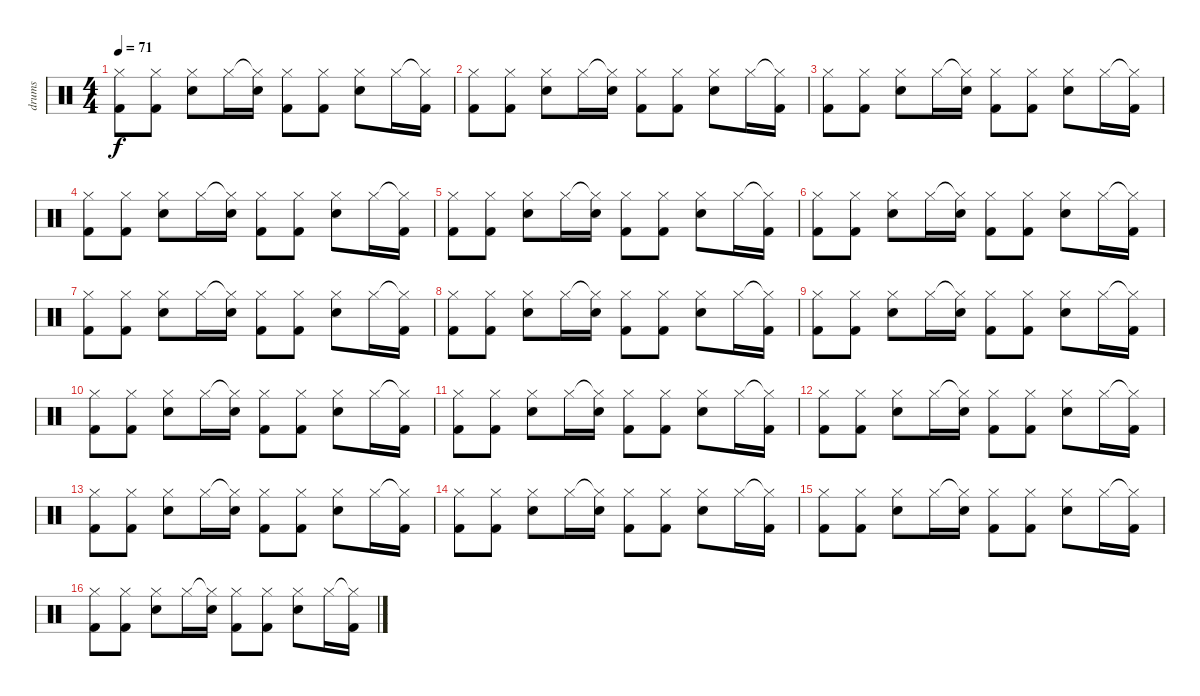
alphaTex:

\track ("drums" "drums") {instrument percussion}
\staff {score}
\articulation defaults
\ts (4 4)
\tempo 71
\clef neutral
\ks c
("Hi-Hat (closed)" "Kick (hit) 2").8{dy f} ("Hi-Hat (closed)" "Kick (hit) 2").8 ("Hi-Hat (closed)" "Snare (hit) 2").8 "Hi-Hat (closed)".16 ("Hi-Hat (closed)"{t} "Snare (hit) 2").16 ("Hi-Hat (closed)" "Kick (hit) 2").8 ("Hi-Hat (closed)" "Kick (hit) 2").8 ("Hi-Hat (closed)" "Snare (hit) 2").8 "Hi-Hat (closed)".16 ("Hi-Hat (closed)"{t} "Kick (hit) 2").16 |
("Hi-Hat (closed)" "Kick (hit) 2").8 ("Hi-Hat (closed)" "Kick (hit) 2").8 ("Hi-Hat (closed)" "Snare (hit) 2").8 "Hi-Hat (closed)".16 ("Hi-Hat (closed)"{t} "Snare (hit) 2").16 ("Hi-Hat (closed)" "Kick (hit) 2").8 ("Hi-Hat (closed)" "Kick (hit) 2").8 ("Hi-Hat (closed)" "Snare (hit) 2").8 "Hi-Hat (closed)".16 ("Hi-Hat (closed)"{t} "Kick (hit) 2").16 |
("Hi-Hat (closed)" "Kick (hit) 2").8 ("Hi-Hat (closed)" "Kick (hit) 2").8 ("Hi-Hat (closed)" "Snare (hit) 2").8 "Hi-Hat (closed)".16 ("Hi-Hat (closed)"{t} "Snare (hit) 2").16 ("Hi-Hat (closed)" "Kick (hit) 2").8 ("Hi-Hat (closed)" "Kick (hit) 2").8 ("Hi-Hat (closed)" "Snare (hit) 2").8 "Hi-Hat (closed)".16 ("Hi-Hat (closed)"{t} "Kick (hit) 2").16 |
("Hi-Hat (closed)" "Kick (hit) 2").8 ("Hi-Hat (closed)" "Kick (hit) 2").8 ("Hi-Hat (closed)" "Snare (hit) 2").8 "Hi-Hat (closed)".16 ("Hi-Hat (closed)"{t} "Snare (hit) 2").16 ("Hi-Hat (closed)" "Kick (hit) 2").8 ("Hi-Hat (closed)" "Kick (hit) 2").8 ("Hi-Hat (closed)" "Snare (hit) 2").8 "Hi-Hat (closed)".16 ("Hi-Hat (closed)"{t} "Kick (hit) 2").16 |
("Hi-Hat (closed)" "Kick (hit) 2").8 ("Hi-Hat (closed)" "Kick (hit) 2").8 ("Hi-Hat (closed)" "Snare (hit) 2").8 "Hi-Hat (closed)".16 ("Hi-Hat (closed)"{t} "Snare (hit) 2").16 ("Hi-Hat (closed)" "Kick (hit) 2").8 ("Hi-Hat (closed)" "Kick (hit) 2").8 ("Hi-Hat (closed)" "Snare (hit) 2").8 "Hi-Hat (closed)".16 ("Hi-Hat (closed)"{t} "Kick (hit) 2").16 |
("Hi-Hat (closed)" "Kick (hit) 2").8 ("Hi-Hat (closed)" "Kick (hit) 2").8 ("Hi-Hat (closed)" "Snare (hit) 2").8 "Hi-Hat (closed)".16 ("Hi-Hat (closed)"{t} "Snare (hit) 2").16 ("Hi-Hat (closed)" "Kick (hit) 2").8 ("Hi-Hat (closed)" "Kick (hit) 2").8 ("Hi-Hat (closed)" "Snare (hit) 2").8 "Hi-Hat (closed)".16 ("Hi-Hat (closed)"{t} "Kick (hit) 2").16 |
("Hi-Hat (closed)" "Kick (hit) 2").8 ("Hi-Hat (closed)" "Kick (hit) 2").8 ("Hi-Hat (closed)" "Snare (hit) 2").8 "Hi-Hat (closed)".16 ("Hi-Hat (closed)"{t} "Snare (hit) 2").16 ("Hi-Hat (closed)" "Kick (hit) 2").8 ("Hi-Hat (closed)" "Kick (hit) 2").8 ("Hi-Hat (closed)" "Snare (hit) 2").8 "Hi-Hat (closed)".16 ("Hi-Hat (closed)"{t} "Kick (hit) 2").16 |
("Hi-Hat (closed)" "Kick (hit) 2").8 ("Hi-Hat (closed)" "Kick (hit) 2").8 ("Hi-Hat (closed)" "Snare (hit) 2").8 "Hi-Hat (closed)".16 ("Hi-Hat (closed)"{t} "Snare (hit) 2").16 ("Hi-Hat (closed)" "Kick (hit) 2").8 ("Hi-Hat (closed)" "Kick (hit) 2").8 ("Hi-Hat (closed)" "Snare (hit) 2").8 "Hi-Hat (closed)".16 ("Hi-Hat (closed)"{t} "Kick (hit) 2").16 |
("Hi-Hat (closed)" "Kick (hit) 2").8 ("Hi-Hat (closed)" "Kick (hit) 2").8 ("Hi-Hat (closed)" "Snare (hit) 2").8 "Hi-Hat (closed)".16 ("Hi-Hat (closed)"{t} "Snare (hit) 2").16 ("Hi-Hat (closed)" "Kick (hit) 2").8 ("Hi-Hat (closed)" "Kick (hit) 2").8 ("Hi-Hat (closed)" "Snare (hit) 2").8 "Hi-Hat (closed)".16 ("Hi-Hat (closed)"{t} "Kick (hit) 2").16 |
("Hi-Hat (closed)" "Kick (hit) 2").8 ("Hi-Hat (closed)" "Kick (hit) 2").8 ("Hi-Hat (closed)" "Snare (hit) 2").8 "Hi-Hat (closed)".16 ("Hi-Hat (closed)"{t} "Snare (hit) 2").16 ("Hi-Hat (closed)" "Kick (hit) 2").8 ("Hi-Hat (closed)" "Kick (hit) 2").8 ("Hi-Hat (closed)" "Snare (hit) 2").8 "Hi-Hat (closed)".16 ("Hi-Hat (closed)"{t} "Kick (hit) 2").16 |
("Hi-Hat (closed)" "Kick (hit) 2").8 ("Hi-Hat (closed)" "Kick (hit) 2").8 ("Hi-Hat (closed)" "Snare (hit) 2").8 "Hi-Hat (closed)".16 ("Hi-Hat (closed)"{t} "Snare (hit) 2").16 ("Hi-Hat (closed)" "Kick (hit) 2").8 ("Hi-Hat (closed)" "Kick (hit) 2").8 ("Hi-Hat (closed)" "Snare (hit) 2").8 "Hi-Hat (closed)".16 ("Hi-Hat (closed)"{t} "Kick (hit) 2").16 |
("Hi-Hat (closed)" "Kick (hit) 2").8 ("Hi-Hat (closed)" "Kick (hit) 2").8 ("Hi-Hat (closed)" "Snare (hit) 2").8 "Hi-Hat (closed)".16 ("Hi-Hat (closed)"{t} "Snare (hit) 2").16 ("Hi-Hat (closed)" "Kick (hit) 2").8 ("Hi-Hat (closed)" "Kick (hit) 2").8 ("Hi-Hat (closed)" "Snare (hit) 2").8 "Hi-Hat (closed)".16 ("Hi-Hat (closed)"{t} "Kick (hit) 2").16 |
("Hi-Hat (closed)" "Kick (hit) 2").8 ("Hi-Hat (closed)" "Kick (hit) 2").8 ("Hi-Hat (closed)" "Snare (hit) 2").8 "Hi-Hat (closed)".16 ("Hi-Hat (closed)"{t} "Snare (hit) 2").16 ("Hi-Hat (closed)" "Kick (hit) 2").8 ("Hi-Hat (closed)" "Kick (hit) 2").8 ("Hi-Hat (closed)" "Snare (hit) 2").8 "Hi-Hat (closed)".16 ("Hi-Hat (closed)"{t} "Kick (hit) 2").16 |
("Hi-Hat (closed)" "Kick (hit) 2").8 ("Hi-Hat (closed)" "Kick (hit) 2").8 ("Hi-Hat (closed)" "Snare (hit) 2").8 "Hi-Hat (closed)".16 ("Hi-Hat (closed)"{t} "Snare (hit) 2").16 ("Hi-Hat (closed)" "Kick (hit) 2").8 ("Hi-Hat (closed)" "Kick (hit) 2").8 ("Hi-Hat (closed)" "Snare (hit) 2").8 "Hi-Hat (closed)".16 ("Hi-Hat (closed)"{t} "Kick (hit) 2").16 |
("Hi-Hat (closed)" "Kick (hit) 2").8 ("Hi-Hat (closed)" "Kick (hit) 2").8 ("Hi-Hat (closed)" "Snare (hit) 2").8 "Hi-Hat (closed)".16 ("Hi-Hat (closed)"{t} "Snare (hit) 2").16 ("Hi-Hat (closed)" "Kick (hit) 2").8 ("Hi-Hat (closed)" "Kick (hit) 2").8 ("Hi-Hat (closed)" "Snare (hit) 2").8 "Hi-Hat (closed)".16 ("Hi-Hat (closed)"{t} "Kick (hit) 2").16 |
("Hi-Hat (closed)" "Kick (hit) 2").8 ("Hi-Hat (closed)" "Kick (hit) 2").8 ("Hi-Hat (closed)" "Snare (hit) 2").8 "Hi-Hat (closed)".16 ("Hi-Hat (closed)"{t} "Snare (hit) 2").16 ("Hi-Hat (closed)" "Kick (hit) 2").8 ("Hi-Hat (closed)" "Kick (hit) 2").8 ("Hi-Hat (closed)" "Snare (hit) 2").8 "Hi-Hat (closed)".16 ("Hi-Hat (closed)"{t} "Kick (hit) 2").16
